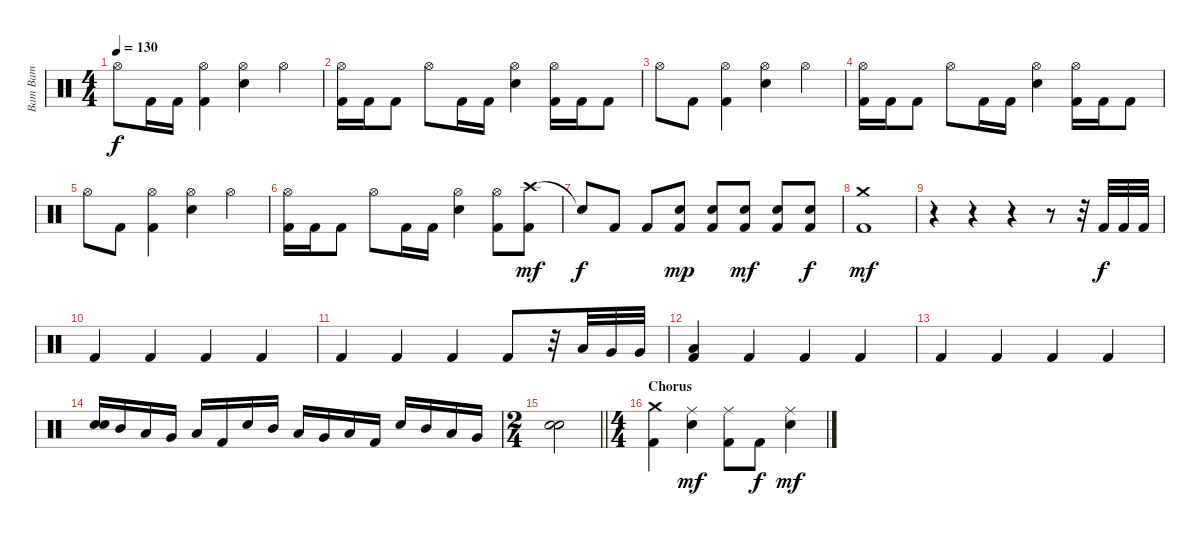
\track ("Bam Bam" "Bam Bam") {instrument percussion}
\staff {score}
\articulation defaults
\ts (4 4)
\tempo 130
\clef neutral
\ks c "Hi-Hat (open)".8{dy f} "Kick (hit) 2".16 "Kick (hit) 2".16
("Hi-Hat (open)" "Kick (hit) 2").4 ("Hi-Hat (open)" "Electric Snare (hit)").4 "Hi-Hat (open)".4 |
("Hi-Hat (open)" "Kick (hit) 2").16 "Kick (hit) 2".16 "Kick (hit) 2".8 "Hi-Hat (open)".8 "Kick (hit) 2".16 "Kick (hit) 2".16 ("Hi-Hat (open)" "Electric Snare (hit)").4 ("Hi-Hat (open)" "Kick (hit) 2").16 "Kick (hit) 2".16 "Kick (hit) 2".8 |
"Hi-Hat (open)".8 "Kick (hit) 2".8 ("Hi-Hat (open)" "Kick (hit) 2").4 ("Hi-Hat (open)" "Electric Snare (hit)").4 "Hi-Hat (open)".4 |
("Hi-Hat (open)" "Kick (hit) 2").16 "Kick (hit) 2".16 "Kick (hit) 2".8 "Hi-Hat (open)".8 "Kick (hit) 2".16 "Kick (hit) 2".16 ("Hi-Hat (open)" "Electric Snare (hit)").4 ("Hi-Hat (open)" "Kick (hit) 2").16 "Kick (hit) 2".16 "Kick (hit) 2".8 |
"Hi-Hat (open)".8 "Kick (hit) 2".8 ("Hi-Hat (open)" "Kick (hit) 2").4 ("Hi-Hat (open)" "Electric Snare (hit)").4 "Hi-Hat (open)".4 |
("Hi-Hat (open)" "Kick (hit) 2").16 "Kick (hit) 2".16 "Kick (hit) 2".8 "Hi-Hat (open)".8 "Kick (hit) 2".16 "Kick (hit) 2".16 ("Hi-Hat (open)" "Electric Snare (hit)").4 ("Hi-Hat (open)" "Kick (hit) 2").8 ("Crash high (hit)" "Kick (hit) 2").8{dy mf} |
"Snare (hit)"{t}.8{dy f} "Kick (hit) 2".8 "Kick (hit) 2".8 ("Electric Snare (hit)" "Kick (hit) 2").8{dy mp} ("Electric Snare (hit)" "Kick (hit) 2").8 ("Electric Snare (hit)" "Kick (hit) 2").8{dy mf} ("Electric Snare (hit)" "Kick (hit) 2").8 ("Electric Snare (hit)" "Kick (hit) 2").8{dy f} |
("Crash medium (hit)" "Kick (hit) 2").1{dy mf} |
r.4 r.4 r.4 r.8 r.32 "Kick (hit) 2".32{dy f} "Kick (hit) 2".32 "Kick (hit) 2".32 |
"Kick (hit) 2".4 "Kick (hit) 2".4 "Kick (hit) 2".4 "Kick (hit) 2".4 |
"Kick (hit) 2".4 "Kick (hit) 2".4 "Kick (hit) 2".4 "Kick (hit) 2".8 r.32 "Low Tom (hit)".32 "Very Low Tom (hit)".32 "Very Low Tom (hit)".32 |
("Low Floor Tom (hit)" "Kick (hit) 2").4 "Kick (hit) 2".4 "Kick (hit) 2".4 "Kick (hit) 2".4 |
"Kick (hit) 2".4 "Kick (hit) 2".4 "Kick (hit) 2".4 "Kick (hit) 2".4 |
("Electric Snare (hit)" "Electric Snare (hit)").16 "Mid Tom (hit)".16 "Low Tom (hit)".16 "Very Low Tom (hit)".16 "Low Floor Tom (hit)".16 "Kick (hit) 2".16 "Electric Snare (hit)".16 "Mid Tom (hit)".16 "Low Tom (hit)".16 "Very Low Tom (hit)".16 "Low Floor Tom (hit)".16 "Kick (hit) 2".16 "Electric Snare (hit)".16 "Mid Tom (hit)".16 "Low Tom (hit)".16 "Very Low Tom (hit)".16 |
\ts (2 4)
\barLineRight lightlight
("Electric Snare (hit)" "Electric Snare (hit)").2 |
\ts (4 4)
\section ("" "Chorus")
("Crash medium (hit)" "Kick (hit) 2").4 ("Ride (middle)" "Electric Snare (hit)").4{dy mf} ("Ride (middle)" "Kick (hit) 2").8 "Kick (hit) 2".8{dy f} ("Ride (middle)" "Electric Snare (hit)").4{dy mf}
